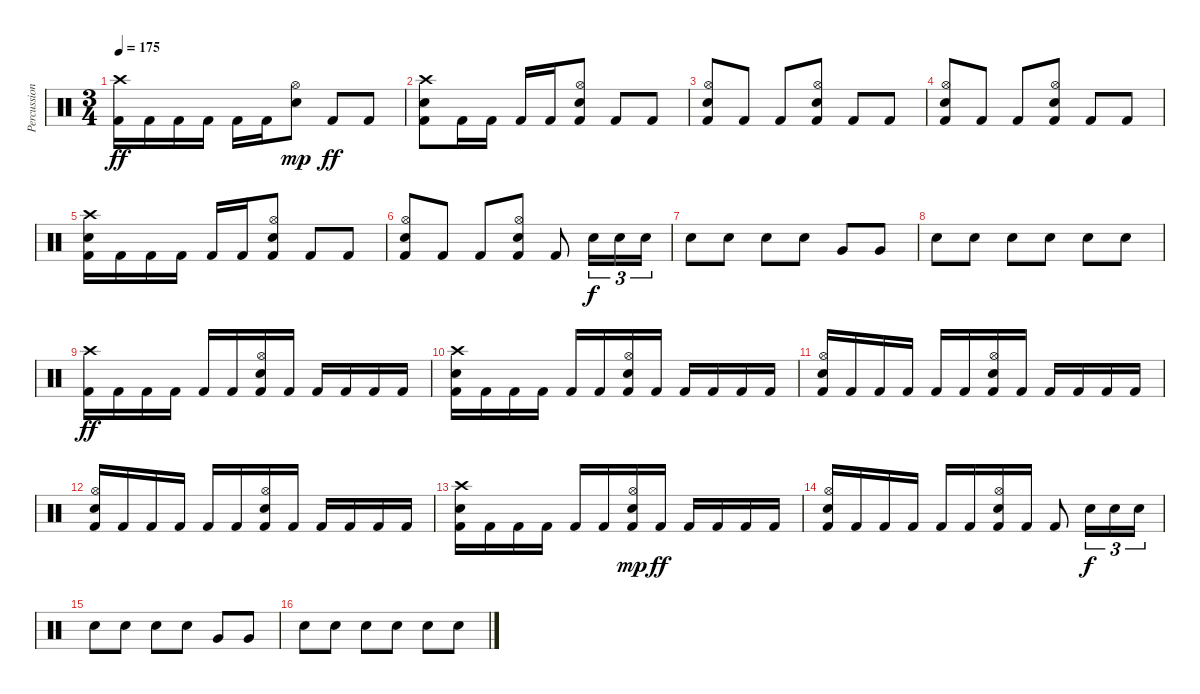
\track ("Percussion" "Percussion") {instrument percussion}
\staff {score}
\articulation defaults
\ts (3 4)
\tempo 175
\clef neutral
\ks c
("Crash high (hit)" "Kick (hit) 2").16{dy ff} "Kick (hit) 2".16 "Kick (hit) 2".16 "Kick (hit) 2".16 "Kick (hit) 2".16 "Kick (hit) 2".16 ("Hi-Hat (open)" "Snare (hit) 2").8{dy mp} "Kick (hit) 2".8{dy ff} "Kick (hit) 2".8 |
("Crash high (hit)" "Snare (hit) 2" "Kick (hit) 2").8 "Kick (hit) 2".16 "Kick (hit) 2".16 "Kick (hit) 2".16 "Kick (hit) 2".16 ("Hi-Hat (open)" "Snare (hit) 2" "Kick (hit) 2").8 "Kick (hit) 2".8 "Kick (hit) 2".8 |
("Hi-Hat (open)" "Snare (hit) 2" "Kick (hit) 2").8 "Kick (hit) 2".8 "Kick (hit) 2".8 ("Hi-Hat (open)" "Snare (hit) 2" "Kick (hit) 2").8 "Kick (hit) 2".8 "Kick (hit) 2".8 |
("Hi-Hat (open)" "Snare (hit) 2" "Kick (hit) 2").8 "Kick (hit) 2".8 "Kick (hit) 2".8 ("Hi-Hat (open)" "Snare (hit) 2" "Kick (hit) 2").8 "Kick (hit) 2".8 "Kick (hit) 2".8 |
("Crash high (hit)" "Snare (hit) 2" "Kick (hit) 2").16 "Kick (hit) 2".16 "Kick (hit) 2".16 "Kick (hit) 2".16 "Kick (hit) 2".16 "Kick (hit) 2".16 ("Hi-Hat (open)" "Snare (hit) 2" "Kick (hit) 2").8 "Kick (hit) 2".8 "Kick (hit) 2".8 |
("Hi-Hat (open)" "Snare (hit) 2" "Kick (hit) 2").8 "Kick (hit) 2".8 "Kick (hit) 2".8 ("Hi-Hat (open)" "Snare (hit) 2" "Kick (hit) 2").8 "Kick (hit) 2".8 "Snare (hit) 2".16{tu (3 2) dy f} "Snare (hit) 2".16{tu (3 2)} "Snare (hit) 2".16{tu (3 2)} |
"Snare (hit) 2".8 "Snare (hit) 2".8 "Snare (hit) 2".8 "Snare (hit) 2".8 "Very Low Tom (hit)".8 "Very Low Tom (hit)".8 |
"Snare (hit) 2".8 "Snare (hit) 2".8 "Snare (hit) 2".8 "Snare (hit) 2".8 "Snare (hit) 2".8 "Snare (hit) 2".8 |
("Crash high (hit)" "Kick (hit) 2").16{dy ff} "Kick (hit) 2".16 "Kick (hit) 2".16 "Kick (hit) 2".16 "Kick (hit) 2".16 "Kick (hit) 2".16 ("Hi-Hat (open)" "Snare (hit) 2" "Kick (hit) 2").16 "Kick (hit) 2".16 "Kick (hit) 2".16 "Kick (hit) 2".16 "Kick (hit) 2".16 "Kick (hit) 2".16 |
("Crash high (hit)" "Snare (hit) 2" "Kick (hit) 2").16 "Kick (hit) 2".16 "Kick (hit) 2".16 "Kick (hit) 2".16 "Kick (hit) 2".16 "Kick (hit) 2".16 ("Hi-Hat (open)" "Snare (hit) 2" "Kick (hit) 2").16 "Kick (hit) 2".16 "Kick (hit) 2".16 "Kick (hit) 2".16 "Kick (hit) 2".16 "Kick (hit) 2".16 |
("Hi-Hat (open)" "Snare (hit) 2" "Kick (hit) 2").16 "Kick (hit) 2".16 "Kick (hit) 2".16 "Kick (hit) 2".16 "Kick (hit) 2".16 "Kick (hit) 2".16 ("Hi-Hat (open)" "Snare (hit) 2" "Kick (hit) 2").16 "Kick (hit) 2".16 "Kick (hit) 2".16 "Kick (hit) 2".16 "Kick (hit) 2".16 "Kick (hit) 2".16 |
("Hi-Hat (open)" "Snare (hit) 2" "Kick (hit) 2").16 "Kick (hit) 2".16 "Kick (hit) 2".16 "Kick (hit) 2".16 "Kick (hit) 2".16 "Kick (hit) 2".16 ("Hi-Hat (open)" "Snare (hit) 2" "Kick (hit) 2").16 "Kick (hit) 2".16 "Kick (hit) 2".16 "Kick (hit) 2".16 "Kick (hit) 2".16 "Kick (hit) 2".16 |
("Crash high (hit)" "Snare (hit) 2" "Kick (hit) 2").16 "Kick (hit) 2".16 "Kick (hit) 2".16 "Kick (hit) 2".16 "Kick (hit) 2".16 "Kick (hit) 2".16 ("Hi-Hat (open)" "Snare (hit) 2" "Kick (hit) 2").16{dy mp} "Kick (hit) 2".16{dy ff} "Kick (hit) 2".16 "Kick (hit) 2".16 "Kick (hit) 2".16 "Kick (hit) 2".16 |
("Hi-Hat (open)" "Snare (hit) 2" "Kick (hit) 2").16 "Kick (hit) 2".16 "Kick (hit) 2".16 "Kick (hit) 2".16 "Kick (hit) 2".16 "Kick (hit) 2".16 ("Hi-Hat (open)" "Snare (hit) 2" "Kick (hit) 2").16 "Kick (hit) 2".16 "Kick (hit) 2".8 "Snare (hit) 2".16{tu (3 2) dy f} "Snare (hit) 2".16{tu (3 2)} "Snare (hit) 2".16{tu (3 2)} |
"Snare (hit) 2".8 "Snare (hit) 2".8 "Snare (hit) 2".8 "Snare (hit) 2".8 "Very Low Tom (hit)".8 "Very Low Tom (hit)".8 |
"Snare (hit) 2".8 "Snare (hit) 2".8 "Snare (hit) 2".8 "Snare (hit) 2".8 "Snare (hit) 2".8 "Snare (hit) 2".8
